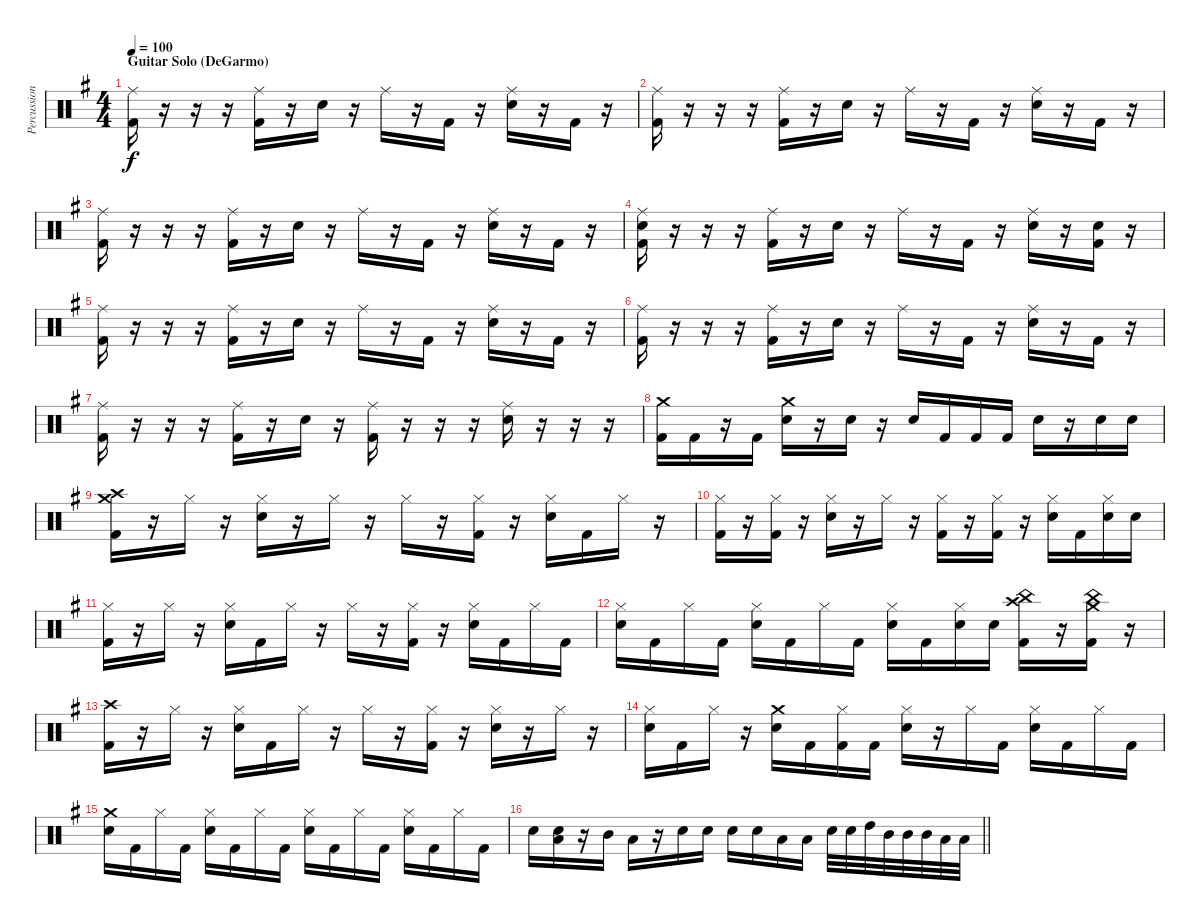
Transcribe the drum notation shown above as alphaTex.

\track ("Percussion" "Percussion") {instrument percussion}
\staff {score}
\articulation defaults
\ts (4 4)
\section ("" "Guitar Solo (DeGarmo)")
\tempo 100
\clef neutral
\ks g
("Ride (middle)" "Kick (hit) 2").16{dy f} r.16 r.16 r.16 ("Ride (middle)" "Kick (hit) 2").16 r.16 "Snare (hit) 2".16 r.16 "Ride (middle)".16 r.16 "Kick (hit) 2".16 r.16 ("Ride (middle)" "Snare (hit) 2").16 r.16 "Kick (hit) 2".16 r.16 |
("Ride (middle)" "Kick (hit) 2").16 r.16 r.16 r.16 ("Ride (middle)" "Kick (hit) 2").16 r.16 "Snare (hit) 2".16 r.16 "Ride (middle)".16 r.16 "Kick (hit) 2".16 r.16 ("Ride (middle)" "Snare (hit) 2").16 r.16 "Kick (hit) 2".16 r.16 |
("Ride (middle)" "Kick (hit) 2").16 r.16 r.16 r.16 ("Ride (middle)" "Kick (hit) 2").16 r.16 "Snare (hit) 2".16 r.16 "Ride (middle)".16 r.16 "Kick (hit) 2".16 r.16 ("Ride (middle)" "Snare (hit) 2").16 r.16 "Kick (hit) 2".16 r.16 |
("Ride (middle)" "Snare (hit) 2" "Kick (hit) 2").16 r.16 r.16 r.16 ("Ride (middle)" "Kick (hit) 2").16 r.16 "Snare (hit) 2".16 r.16 "Ride (middle)".16 r.16 "Kick (hit) 2".16 r.16 ("Ride (middle)" "Snare (hit) 2").16 r.16 ("Snare (hit) 2" "Kick (hit) 2").16 r.16 |
("Ride (middle)" "Kick (hit) 2").16 r.16 r.16 r.16 ("Ride (middle)" "Kick (hit) 2").16 r.16 "Snare (hit) 2".16 r.16 "Ride (middle)".16 r.16 "Kick (hit) 2".16 r.16 ("Ride (middle)" "Snare (hit) 2").16 r.16 "Kick (hit) 2".16 r.16 |
("Ride (middle)" "Kick (hit) 2").16 r.16 r.16 r.16 ("Ride (middle)" "Kick (hit) 2").16 r.16 "Snare (hit) 2".16 r.16 "Ride (middle)".16 r.16 "Kick (hit) 2".16 r.16 ("Ride (middle)" "Snare (hit) 2").16 r.16 "Kick (hit) 2".16 r.16 |
("Ride (middle)" "Kick (hit) 2").16 r.16 r.16 r.16 ("Ride (middle)" "Kick (hit) 2").16 r.16 "Snare (hit) 2".16 r.16 ("Ride (middle)" "Kick (hit) 2").16 r.16 r.16 r.16 ("Ride (middle)" "Snare (hit) 2").16 r.16 r.16 r.16 |
("Crash medium (hit)" "Kick (hit) 2").16 "Kick (hit) 2".16 r.16 "Kick (hit) 2".16 ("Crash medium (hit)" "Snare (hit) 2").16 r.16 "Snare (hit) 2".16 r.16 "Snare (hit) 2".16 "Kick (hit) 2".16 "Kick (hit) 2".16 "Kick (hit) 2".16 "Snare (hit) 2".16 r.16 "Snare (hit) 2".16 "Snare (hit) 2".16 |
("Crash high (hit)" "Crash medium (hit)" "Kick (hit) 2").16 r.16 "Hi-Hat (closed)".16 r.16 ("Hi-Hat (closed)" "Snare (hit) 2").16 r.16 "Hi-Hat (closed)".16 r.16 "Hi-Hat (closed)".16 r.16 ("Hi-Hat (closed)" "Kick (hit) 2").16 r.16 ("Hi-Hat (closed)" "Snare (hit) 2").16 "Kick (hit) 2".16 "Hi-Hat (closed)".16 r.16 |
("Hi-Hat (closed)" "Kick (hit) 2").16 r.16 ("Hi-Hat (closed)" "Kick (hit) 2").16 r.16 ("Hi-Hat (closed)" "Snare (hit) 2").16 r.16 "Hi-Hat (closed)".16 r.16 ("Hi-Hat (closed)" "Kick (hit) 2").16 r.16 ("Hi-Hat (closed)" "Kick (hit) 2").16 r.16 ("Hi-Hat (closed)" "Snare (hit) 2").16 "Kick (hit) 2".16 ("Hi-Hat (closed)" "Snare (hit) 2").16 "Snare (hit) 2".16 |
("Hi-Hat (closed)" "Kick (hit) 2").16 r.16 "Hi-Hat (closed)".16 r.16 ("Hi-Hat (closed)" "Snare (hit) 2").16 "Kick (hit) 2".16 "Hi-Hat (closed)".16 r.16 "Hi-Hat (closed)".16 r.16 ("Hi-Hat (closed)" "Kick (hit) 2").16 r.16 ("Hi-Hat (closed)" "Snare (hit) 2").16 "Kick (hit) 2".16 "Hi-Hat (closed)".16 "Kick (hit) 2".16 |
("Hi-Hat (closed)" "Snare (hit) 2").16 "Kick (hit) 2".16 "Hi-Hat (closed)".16 "Kick (hit) 2".16 ("Hi-Hat (closed)" "Snare (hit) 2").16 "Kick (hit) 2".16 "Hi-Hat (closed)".16 "Kick (hit) 2".16 ("Hi-Hat (closed)" "Snare (hit) 2").16 "Kick (hit) 2".16 ("Hi-Hat (closed)" "Snare (hit) 2").16 "Snare (hit) 2".16 ("China (hit)" "Crash high (hit)" "Kick (hit) 2").16 r.16 ("China (hit)" "Crash medium (hit)" "Kick (hit) 2").16 r.16 |
("Crash high (hit)" "Kick (hit) 2").16 r.16 "Hi-Hat (closed)".16 r.16 ("Hi-Hat (closed)" "Snare (hit) 2").16 "Kick (hit) 2".16 "Hi-Hat (closed)".16 r.16 "Hi-Hat (closed)".16 r.16 ("Hi-Hat (closed)" "Kick (hit) 2").16 r.16 ("Hi-Hat (closed)" "Snare (hit) 2").16 r.16 "Hi-Hat (closed)".16 r.16 |
("Hi-Hat (closed)" "Snare (hit) 2").16 "Kick (hit) 2".16 "Hi-Hat (closed)".16 r.16 ("Crash medium (hit)" "Snare (hit) 2").16 "Kick (hit) 2".16 ("Hi-Hat (closed)" "Kick (hit) 2").16 "Kick (hit) 2".16 ("Hi-Hat (closed)" "Snare (hit) 2").16 r.16 "Hi-Hat (closed)".16 "Kick (hit) 2".16 ("Hi-Hat (closed)" "Snare (hit) 2").16 "Kick (hit) 2".16 "Hi-Hat (closed)".16 "Kick (hit) 2".16 |
("Crash medium (hit)" "Snare (hit) 2").16 "Kick (hit) 2".16 "Hi-Hat (closed)".16 "Kick (hit) 2".16 ("Hi-Hat (closed)" "Snare (hit) 2").16 "Kick (hit) 2".16 "Hi-Hat (closed)".16 "Kick (hit) 2".16 ("Hi-Hat (closed)" "Snare (hit) 2").16 "Kick (hit) 2".16 "Hi-Hat (closed)".16 "Kick (hit) 2".16 ("Hi-Hat (closed)" "Snare (hit) 2").16 "Kick (hit) 2".16 "Hi-Hat (closed)".16 "Kick (hit) 2".16 |
\barLineRight lightlight "Snare (hit) 2".16
("Low Tom (hit)" "Snare (hit) 2").16 r.16 "Mid Tom (hit)".16 "Low Tom (hit)".16 r.16 "Snare (hit) 2".16 "Snare (hit) 2".16 "Snare (hit) 2".16 "Snare (hit) 2".16 "Low Tom (hit)".16 "Low Tom (hit)".16 "Snare (hit) 2".32 "Snare (hit) 2".32 "High Tom (hit)".32 "Mid Tom (hit)".32 "Mid Tom (hit)".32 "Mid Tom (hit)".32 "Low Tom (hit)".32 "Low Tom (hit)".32
